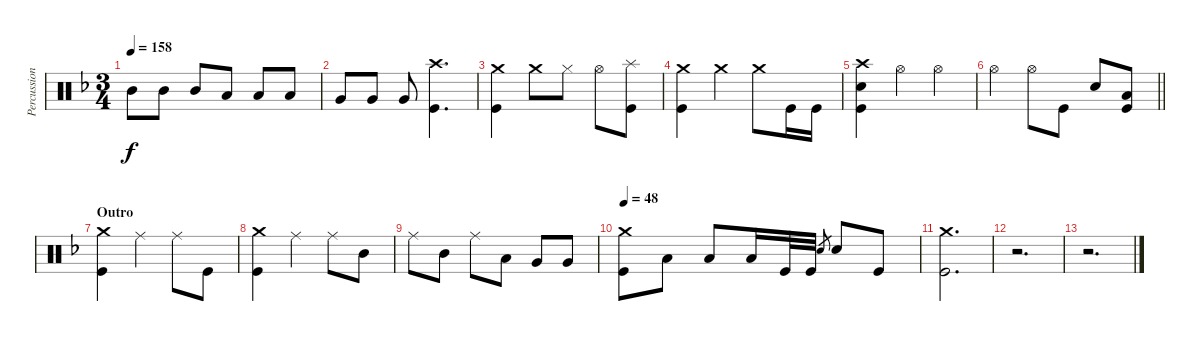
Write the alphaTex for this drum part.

\track ("Percussion" "Percussion") {instrument percussion}
\staff {score}
\articulation defaults
\ts (3 4)
\tempo 158
\clef neutral
\ks f "Mid Tom (hit)".8{dy f} "Mid Tom (hit)".8 "Mid Tom (hit)".8 "Low Tom (hit)".8 "Low Tom (hit)".8 "Low Tom (hit)".8
|
"Very Low Tom (hit)".8 "Very Low Tom (hit)".8 "Very Low Tom (hit)".8 ("Crash high (hit)" "Kick (hit)").4{d} |
("Crash medium (hit)" "Kick (hit)").4 "Crash medium (hit)".8 "Hi-Hat (closed)".8 "Hi-Hat (open)".8 ("Splash (hit)" "Kick (hit)").8 |
("Crash medium (hit)" "Kick (hit)").4 "Crash medium (hit)".4 "Crash medium (hit)".8 "Kick (hit)".16 "Kick (hit)".16 |
("Crash high (hit)" "Electric Snare (hit)" "Kick (hit)").4 "Hi-Hat (open)".4 "Hi-Hat (open)".4 |
\barLineRight lightlight "Hi-Hat (open)".4 "Hi-Hat (open)".8 "Kick (hit)".8 "Electric Snare (hit)".8
("Low Floor Tom (hit)" "Kick (hit)").8 |
\section ("" "Outro")
("Crash medium (hit)" "Kick (hit)").4 "Ride (middle)".4 "Ride (middle)".8 "Kick (hit)".8 |
("Crash medium (hit)" "Kick (hit)").4 "Ride (middle)".4 "Ride (middle)".8 "Mid Tom (hit)".8 |
"Ride (middle)".8 "Mid Tom (hit)".8 "Ride (middle)".8 "Low Tom (hit)".8 "Very Low Tom (hit)".8 "Very Low Tom (hit)".8 |
\tempo 48
("Crash medium (hit)" "Kick (hit)").8 "Low Tom (hit)".8 "Low Tom (hit)".8 "Low Tom (hit)".16 "Kick (hit)".32 "Kick (hit)".32 "Electric Snare (hit)".8{gr} "Electric Snare (hit)".8 "Kick (hit)".8 |
("Crash medium (hit)" "Kick (hit)").2{d} |
r.2{d} |
r.2{d}
